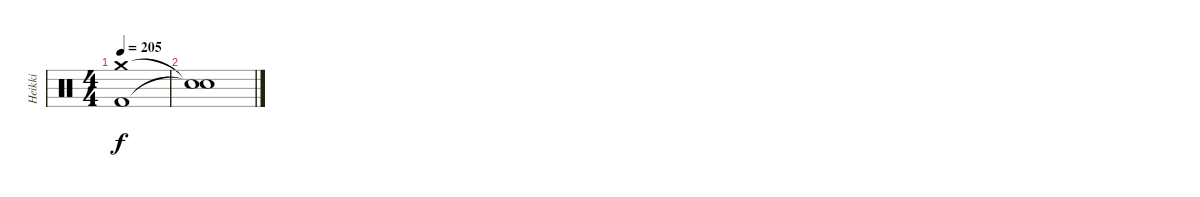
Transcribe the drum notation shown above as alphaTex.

\track ("Heikki" "Heikki") {instrument percussion}
\staff {score}
\articulation defaults
\ts (4 4)
\tempo 205
\clef neutral
\ks c
("Crash medium (hit)" "Kick (hit) 2").1{dy f} |
("Snare (hit)"{t} "Snare (hit)"{t}).1
